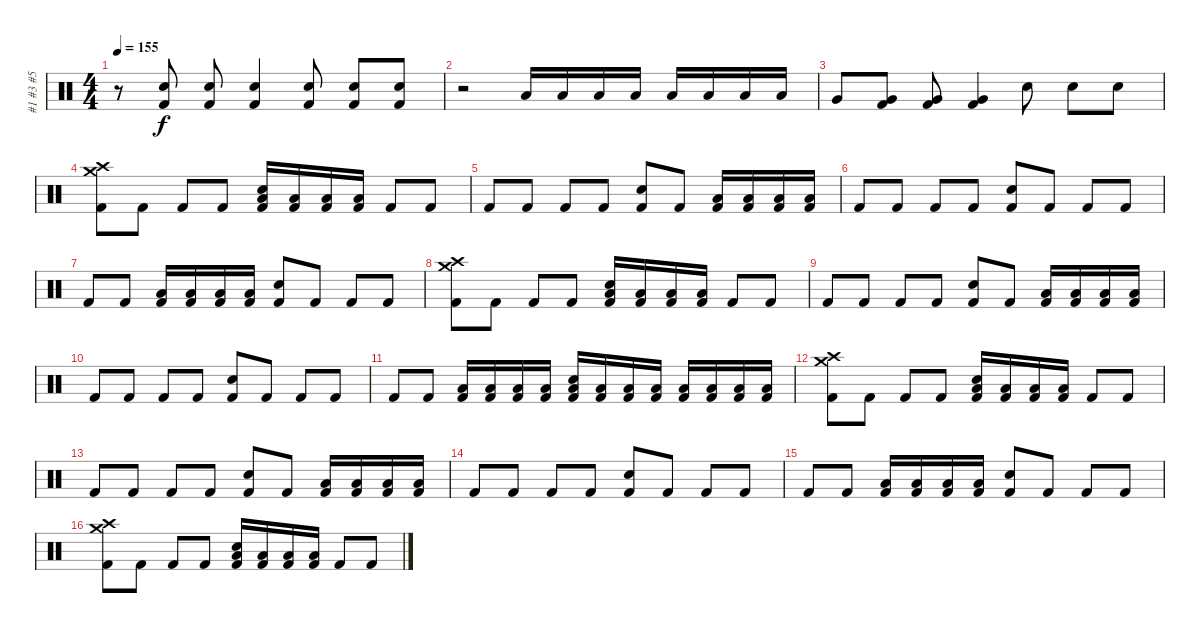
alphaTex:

\track ("#1 #3 #5" "#1 #3 #5") {instrument percussion}
\staff {score}
\articulation defaults
\ts (4 4)
\tempo 155
\clef neutral
\ks c
r.8{dy f} ("Electric Snare (hit)" "Kick (hit) 2").8 ("Electric Snare (hit)" "Kick (hit) 2").8 ("Electric Snare (hit)" "Kick (hit) 2").4 ("Electric Snare (hit)" "Kick (hit) 2").8 ("Electric Snare (hit)" "Kick (hit) 2").8 ("Electric Snare (hit)" "Kick (hit) 2").8 |
r.2 "Low Tom (hit)".16 "Low Tom (hit)".16 "Low Tom (hit)".16 "Low Tom (hit)".16 "Low Tom (hit)".16 "Low Tom (hit)".16 "Low Tom (hit)".16 "Low Tom (hit)".16 |
"Very Low Tom (hit)".8 ("Very Low Tom (hit)" "Kick (hit) 2").8 ("Very Low Tom (hit)" "Kick (hit) 2").8 ("Very Low Tom (hit)" "Kick (hit) 2").4 "Electric Snare (hit)".8 "Electric Snare (hit)".8 "Electric Snare (hit)".8 |
\section ("" " ")
("Crash high (hit)" "Crash medium (hit)" "Kick (hit) 2").8 "Kick (hit) 2".8 "Kick (hit) 2".8 "Kick (hit) 2".8 ("Electric Snare (hit)" "Low Floor Tom (hit)" "Kick (hit) 2").16 ("Low Floor Tom (hit)" "Kick (hit) 2").16 ("Low Floor Tom (hit)" "Kick (hit) 2").16 ("Low Floor Tom (hit)" "Kick (hit) 2").16 "Kick (hit) 2".8 "Kick (hit) 2".8 |
"Kick (hit) 2".8 "Kick (hit) 2".8 "Kick (hit) 2".8 "Kick (hit) 2".8 ("Electric Snare (hit)" "Kick (hit) 2").8 "Kick (hit) 2".8 ("Low Floor Tom (hit)" "Kick (hit) 2").16 ("Low Floor Tom (hit)" "Kick (hit) 2").16 ("Low Floor Tom (hit)" "Kick (hit) 2").16 ("Low Floor Tom (hit)" "Kick (hit) 2").16 |
"Kick (hit) 2".8 "Kick (hit) 2".8 "Kick (hit) 2".8 "Kick (hit) 2".8 ("Electric Snare (hit)" "Kick (hit) 2").8 "Kick (hit) 2".8 "Kick (hit) 2".8 "Kick (hit) 2".8 |
"Kick (hit) 2".8 "Kick (hit) 2".8 ("Low Floor Tom (hit)" "Kick (hit) 2").16 ("Low Floor Tom (hit)" "Kick (hit) 2").16 ("Low Floor Tom (hit)" "Kick (hit) 2").16 ("Low Floor Tom (hit)" "Kick (hit) 2").16 ("Electric Snare (hit)" "Kick (hit) 2").8 "Kick (hit) 2".8 "Kick (hit) 2".8 "Kick (hit) 2".8 |
("Crash high (hit)" "Crash medium (hit)" "Kick (hit) 2").8 "Kick (hit) 2".8 "Kick (hit) 2".8 "Kick (hit) 2".8 ("Electric Snare (hit)" "Low Floor Tom (hit)" "Kick (hit) 2").16 ("Low Floor Tom (hit)" "Kick (hit) 2").16 ("Low Floor Tom (hit)" "Kick (hit) 2").16 ("Low Floor Tom (hit)" "Kick (hit) 2").16 "Kick (hit) 2".8 "Kick (hit) 2".8 |
"Kick (hit) 2".8 "Kick (hit) 2".8 "Kick (hit) 2".8 "Kick (hit) 2".8 ("Electric Snare (hit)" "Kick (hit) 2").8 "Kick (hit) 2".8 ("Low Floor Tom (hit)" "Kick (hit) 2").16 ("Low Floor Tom (hit)" "Kick (hit) 2").16 ("Low Floor Tom (hit)" "Kick (hit) 2").16 ("Low Floor Tom (hit)" "Kick (hit) 2").16 |
"Kick (hit) 2".8 "Kick (hit) 2".8 "Kick (hit) 2".8 "Kick (hit) 2".8 ("Electric Snare (hit)" "Kick (hit) 2").8 "Kick (hit) 2".8 "Kick (hit) 2".8 "Kick (hit) 2".8 |
"Kick (hit) 2".8 "Kick (hit) 2".8 ("Low Floor Tom (hit)" "Kick (hit) 2").16 ("Low Floor Tom (hit)" "Kick (hit) 2").16 ("Low Floor Tom (hit)" "Kick (hit) 2").16 ("Low Floor Tom (hit)" "Kick (hit) 2").16 ("Electric Snare (hit)" "Low Floor Tom (hit)" "Kick (hit) 2").16 ("Low Floor Tom (hit)" "Kick (hit) 2").16 ("Low Floor Tom (hit)" "Kick (hit) 2").16 ("Low Floor Tom (hit)" "Kick (hit) 2").16 ("Low Floor Tom (hit)" "Kick (hit) 2").16 ("Low Floor Tom (hit)" "Kick (hit) 2").16 ("Low Floor Tom (hit)" "Kick (hit) 2").16 ("Low Floor Tom (hit)" "Kick (hit) 2").16 |
("Crash high (hit)" "Crash medium (hit)" "Kick (hit) 2").8 "Kick (hit) 2".8 "Kick (hit) 2".8 "Kick (hit) 2".8 ("Electric Snare (hit)" "Low Floor Tom (hit)" "Kick (hit) 2").16 ("Low Floor Tom (hit)" "Kick (hit) 2").16 ("Low Floor Tom (hit)" "Kick (hit) 2").16 ("Low Floor Tom (hit)" "Kick (hit) 2").16 "Kick (hit) 2".8 "Kick (hit) 2".8 |
"Kick (hit) 2".8 "Kick (hit) 2".8 "Kick (hit) 2".8 "Kick (hit) 2".8 ("Electric Snare (hit)" "Kick (hit) 2").8 "Kick (hit) 2".8 ("Low Floor Tom (hit)" "Kick (hit) 2").16 ("Low Floor Tom (hit)" "Kick (hit) 2").16 ("Low Floor Tom (hit)" "Kick (hit) 2").16 ("Low Floor Tom (hit)" "Kick (hit) 2").16 |
"Kick (hit) 2".8 "Kick (hit) 2".8 "Kick (hit) 2".8 "Kick (hit) 2".8 ("Electric Snare (hit)" "Kick (hit) 2").8 "Kick (hit) 2".8 "Kick (hit) 2".8 "Kick (hit) 2".8 |
"Kick (hit) 2".8 "Kick (hit) 2".8 ("Low Floor Tom (hit)" "Kick (hit) 2").16 ("Low Floor Tom (hit)" "Kick (hit) 2").16 ("Low Floor Tom (hit)" "Kick (hit) 2").16 ("Low Floor Tom (hit)" "Kick (hit) 2").16 ("Electric Snare (hit)" "Kick (hit) 2").8 "Kick (hit) 2".8 "Kick (hit) 2".8 "Kick (hit) 2".8 |
("Crash high (hit)" "Crash medium (hit)" "Kick (hit) 2").8 "Kick (hit) 2".8 "Kick (hit) 2".8 "Kick (hit) 2".8 ("Electric Snare (hit)" "Low Floor Tom (hit)" "Kick (hit) 2").16 ("Low Floor Tom (hit)" "Kick (hit) 2").16 ("Low Floor Tom (hit)" "Kick (hit) 2").16 ("Low Floor Tom (hit)" "Kick (hit) 2").16 "Kick (hit) 2".8 "Kick (hit) 2".8
